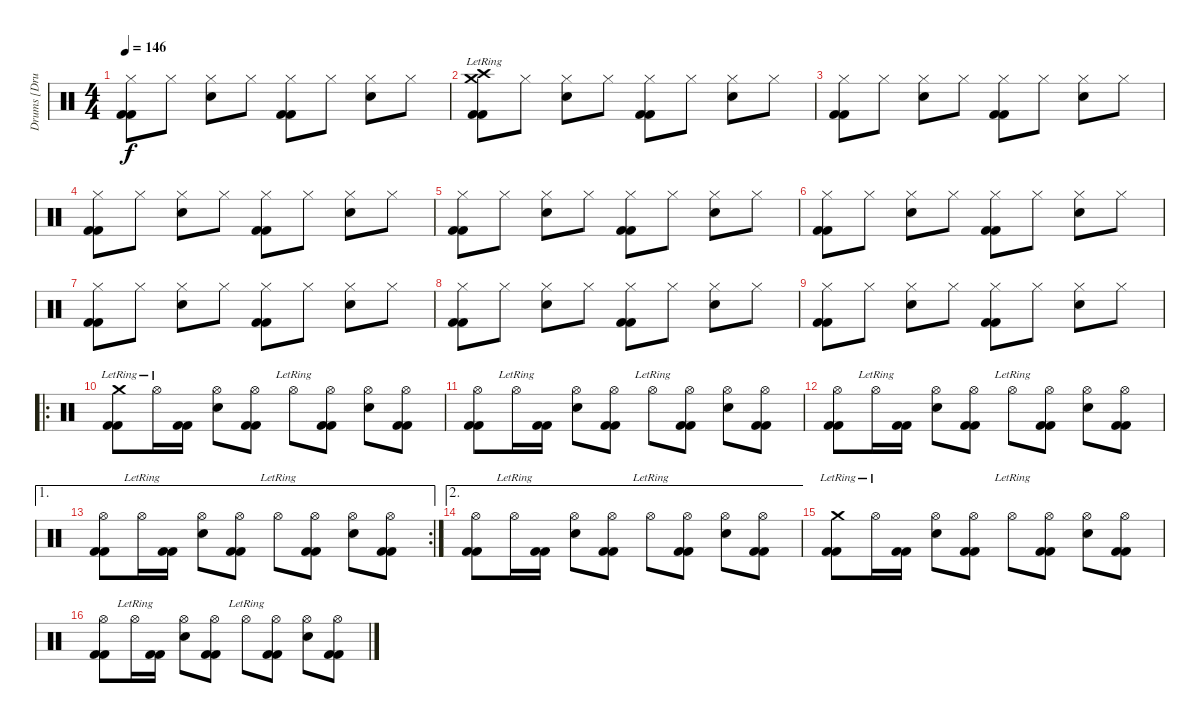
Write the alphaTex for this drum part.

\track ("Drums [Drums]" "Drums [Dru") {instrument percussion}
\staff {score}
\articulation defaults
\ts (4 4)
\tempo 146
\clef neutral
\ks c
("Hi-Hat (closed)" "Kick (hit) 2" "Kick (hit) 2").8{dy f} "Hi-Hat (closed)".8 ("Hi-Hat (closed)" "Snare (hit) 2").8 "Hi-Hat (closed)".8 ("Hi-Hat (closed)" "Kick (hit) 2" "Kick (hit) 2").8 "Hi-Hat (closed)".8 ("Hi-Hat (closed)" "Snare (hit) 2").8 "Hi-Hat (closed)".8 |
("Crash high (hit)"{lr} "Crash medium (hit)"{lr} "Kick (hit) 2" "Kick (hit) 2").8 "Hi-Hat (closed)".8 ("Hi-Hat (closed)" "Snare (hit) 2").8 "Hi-Hat (closed)".8 ("Hi-Hat (closed)" "Kick (hit) 2" "Kick (hit) 2").8 "Hi-Hat (closed)".8 ("Hi-Hat (closed)" "Snare (hit) 2").8 "Hi-Hat (closed)".8 |
("Hi-Hat (closed)" "Kick (hit) 2" "Kick (hit) 2").8 "Hi-Hat (closed)".8 ("Hi-Hat (closed)" "Snare (hit) 2").8 "Hi-Hat (closed)".8 ("Hi-Hat (closed)" "Kick (hit) 2" "Kick (hit) 2").8 "Hi-Hat (closed)".8 ("Hi-Hat (closed)" "Snare (hit) 2").8 "Hi-Hat (closed)".8 |
("Hi-Hat (closed)" "Kick (hit) 2" "Kick (hit) 2").8 "Hi-Hat (closed)".8 ("Hi-Hat (closed)" "Snare (hit) 2").8 "Hi-Hat (closed)".8 ("Hi-Hat (closed)" "Kick (hit) 2" "Kick (hit) 2").8 "Hi-Hat (closed)".8 ("Hi-Hat (closed)" "Snare (hit) 2").8 "Hi-Hat (closed)".8 |
("Hi-Hat (closed)" "Kick (hit) 2" "Kick (hit) 2").8 "Hi-Hat (closed)".8 ("Hi-Hat (closed)" "Snare (hit) 2").8 "Hi-Hat (closed)".8 ("Hi-Hat (closed)" "Kick (hit) 2" "Kick (hit) 2").8 "Hi-Hat (closed)".8 ("Hi-Hat (closed)" "Snare (hit) 2").8 "Hi-Hat (closed)".8 |
("Hi-Hat (closed)" "Kick (hit) 2" "Kick (hit) 2").8 "Hi-Hat (closed)".8 ("Hi-Hat (closed)" "Snare (hit) 2").8 "Hi-Hat (closed)".8 ("Hi-Hat (closed)" "Kick (hit) 2" "Kick (hit) 2").8 "Hi-Hat (closed)".8 ("Hi-Hat (closed)" "Snare (hit) 2").8 "Hi-Hat (closed)".8 |
("Hi-Hat (closed)" "Kick (hit) 2" "Kick (hit) 2").8 "Hi-Hat (closed)".8 ("Hi-Hat (closed)" "Snare (hit) 2").8 "Hi-Hat (closed)".8 ("Hi-Hat (closed)" "Kick (hit) 2" "Kick (hit) 2").8 "Hi-Hat (closed)".8 ("Hi-Hat (closed)" "Snare (hit) 2").8 "Hi-Hat (closed)".8 |
("Hi-Hat (closed)" "Kick (hit) 2" "Kick (hit) 2").8 "Hi-Hat (closed)".8 ("Hi-Hat (closed)" "Snare (hit) 2").8 "Hi-Hat (closed)".8 ("Hi-Hat (closed)" "Kick (hit) 2" "Kick (hit) 2").8 "Hi-Hat (closed)".8 ("Hi-Hat (closed)" "Snare (hit) 2").8 "Hi-Hat (closed)".8 |
("Hi-Hat (closed)" "Kick (hit) 2" "Kick (hit) 2").8 "Hi-Hat (closed)".8 ("Hi-Hat (closed)" "Snare (hit) 2").8 "Hi-Hat (closed)".8 ("Hi-Hat (closed)" "Kick (hit) 2" "Kick (hit) 2").8 "Hi-Hat (closed)".8 ("Hi-Hat (closed)" "Snare (hit) 2").8 "Hi-Hat (closed)".8 |
\ro
("Crash medium (hit)"{lr} "Kick (hit) 2" "Kick (hit) 2").8 "Hi-Hat (open)"{lr}.16 ("Kick (hit) 2" "Kick (hit) 2").16 ("Hi-Hat (open)" "Snare (hit) 2").8 ("Hi-Hat (open)" "Kick (hit) 2" "Kick (hit) 2").8 "Hi-Hat (open)"{lr}.8 ("Hi-Hat (open)" "Kick (hit) 2" "Kick (hit) 2").8 ("Hi-Hat (open)" "Snare (hit) 2").8 ("Hi-Hat (open)" "Kick (hit) 2" "Kick (hit) 2").8 |
("Hi-Hat (open)" "Kick (hit) 2" "Kick (hit) 2").8 "Hi-Hat (open)"{lr}.16 ("Kick (hit) 2" "Kick (hit) 2").16 ("Hi-Hat (open)" "Snare (hit) 2").8 ("Hi-Hat (open)" "Kick (hit) 2" "Kick (hit) 2").8 "Hi-Hat (open)"{lr}.8 ("Hi-Hat (open)" "Kick (hit) 2" "Kick (hit) 2").8 ("Hi-Hat (open)" "Snare (hit) 2").8 ("Hi-Hat (open)" "Kick (hit) 2" "Kick (hit) 2").8 |
("Hi-Hat (open)" "Kick (hit) 2" "Kick (hit) 2").8 "Hi-Hat (open)"{lr}.16 ("Kick (hit) 2" "Kick (hit) 2").16 ("Hi-Hat (open)" "Snare (hit) 2").8 ("Hi-Hat (open)" "Kick (hit) 2" "Kick (hit) 2").8 "Hi-Hat (open)"{lr}.8 ("Hi-Hat (open)" "Kick (hit) 2" "Kick (hit) 2").8 ("Hi-Hat (open)" "Snare (hit) 2").8 ("Hi-Hat (open)" "Kick (hit) 2" "Kick (hit) 2").8 |
\ae 1
\rc 2
("Hi-Hat (open)" "Kick (hit) 2" "Kick (hit) 2").8 "Hi-Hat (open)"{lr}.16 ("Kick (hit) 2" "Kick (hit) 2").16 ("Hi-Hat (open)" "Snare (hit) 2").8 ("Hi-Hat (open)" "Kick (hit) 2" "Kick (hit) 2").8 "Hi-Hat (open)"{lr}.8 ("Hi-Hat (open)" "Kick (hit) 2" "Kick (hit) 2").8 ("Hi-Hat (open)" "Snare (hit) 2").8 ("Hi-Hat (open)" "Kick (hit) 2" "Kick (hit) 2").8 |
\ae 2
("Hi-Hat (open)" "Kick (hit) 2" "Kick (hit) 2").8 "Hi-Hat (open)"{lr}.16 ("Kick (hit) 2" "Kick (hit) 2").16 ("Hi-Hat (open)" "Snare (hit) 2").8 ("Hi-Hat (open)" "Kick (hit) 2" "Kick (hit) 2").8 "Hi-Hat (open)"{lr}.8 ("Hi-Hat (open)" "Kick (hit) 2" "Kick (hit) 2").8 ("Hi-Hat (open)" "Snare (hit) 2").8 ("Hi-Hat (open)" "Kick (hit) 2" "Kick (hit) 2").8 |
("Crash medium (hit)"{lr} "Kick (hit) 2" "Kick (hit) 2").8 "Hi-Hat (open)"{lr}.16 ("Kick (hit) 2" "Kick (hit) 2").16 ("Hi-Hat (open)" "Snare (hit) 2").8 ("Hi-Hat (open)" "Kick (hit) 2" "Kick (hit) 2").8 "Hi-Hat (open)"{lr}.8 ("Hi-Hat (open)" "Kick (hit) 2" "Kick (hit) 2").8 ("Hi-Hat (open)" "Snare (hit) 2").8 ("Hi-Hat (open)" "Kick (hit) 2" "Kick (hit) 2").8 |
("Hi-Hat (open)" "Kick (hit) 2" "Kick (hit) 2").8 "Hi-Hat (open)"{lr}.16 ("Kick (hit) 2" "Kick (hit) 2").16 ("Hi-Hat (open)" "Snare (hit) 2").8 ("Hi-Hat (open)" "Kick (hit) 2" "Kick (hit) 2").8 "Hi-Hat (open)"{lr}.8 ("Hi-Hat (open)" "Kick (hit) 2" "Kick (hit) 2").8 ("Hi-Hat (open)" "Snare (hit) 2").8 ("Hi-Hat (open)" "Kick (hit) 2" "Kick (hit) 2").8
